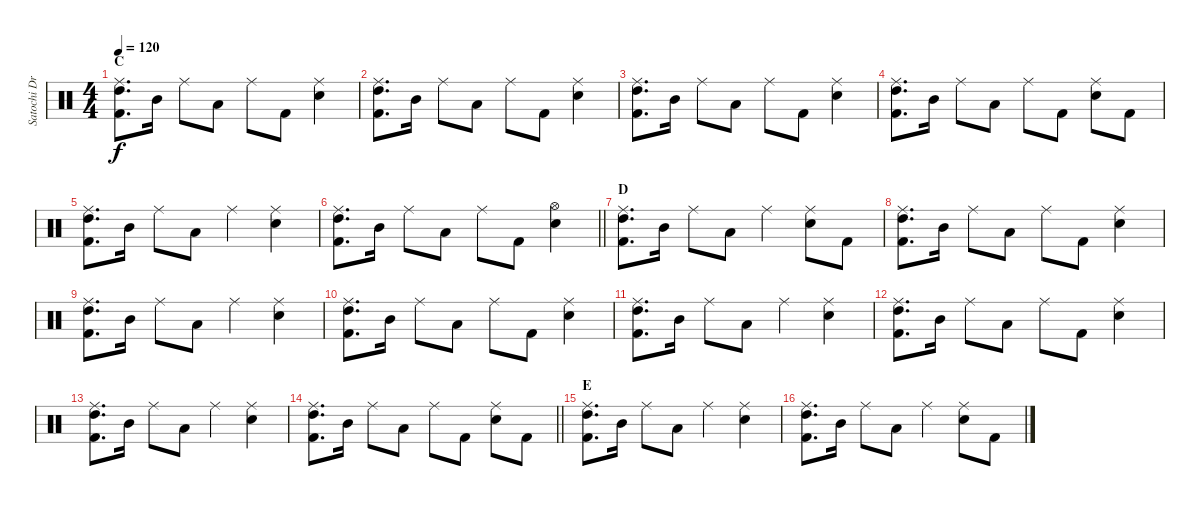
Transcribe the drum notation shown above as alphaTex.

\track ("Satochi Drums" "Satochi Dr") {instrument percussion}
\staff {score}
\articulation defaults
\ts (4 4)
\section ("" "C")
\tempo 120
\clef neutral
\ks c
("Ride (middle)" "High Tom (hit)" "Kick (hit) 2").8{d dy f} "Mid Tom (hit)".16 "Ride (middle)".8 "Low Floor Tom (hit)".8 "Ride (middle)".8 "Kick (hit) 2".8 ("Ride (middle)" "Snare (hit) 2").4 |
("Ride (middle)" "High Tom (hit)" "Kick (hit) 2").8{d} "Mid Tom (hit)".16 "Ride (middle)".8 "Low Floor Tom (hit)".8 "Ride (middle)".8 "Kick (hit) 2".8 ("Ride (middle)" "Snare (hit) 2").4 |
("Ride (middle)" "High Tom (hit)" "Kick (hit) 2").8{d} "Mid Tom (hit)".16 "Ride (middle)".8 "Low Floor Tom (hit)".8 "Ride (middle)".8 "Kick (hit) 2".8 ("Ride (middle)" "Snare (hit) 2").4 |
("Ride (middle)" "High Tom (hit)" "Kick (hit) 2").8{d} "Mid Tom (hit)".16 "Ride (middle)".8 "Low Floor Tom (hit)".8 "Ride (middle)".8 "Kick (hit) 2".8 ("Ride (middle)" "Snare (hit) 2").8 "Kick (hit) 2".8 |
("Ride (middle)" "High Tom (hit)" "Kick (hit) 2").8{d} "Mid Tom (hit)".16 "Ride (middle)".8 "Low Floor Tom (hit)".8 "Ride (middle)".4 ("Ride (middle)" "Snare (hit) 2").4 |
\barLineRight lightlight
("Ride (middle)" "High Tom (hit)" "Kick (hit) 2").8{d} "Mid Tom (hit)".16 "Ride (middle)".8 "Low Floor Tom (hit)".8 "Ride (middle)".8 "Kick (hit) 2".8 ("Hi-Hat (open)" "Snare (hit) 2").4 |
\section ("" "D")
("Ride (middle)" "High Tom (hit)" "Kick (hit) 2").8{d} "Mid Tom (hit)".16 "Ride (middle)".8 "Low Floor Tom (hit)".8 "Ride (middle)".4 ("Ride (middle)" "Snare (hit) 2").8 "Kick (hit) 2".8 |
("Ride (middle)" "High Tom (hit)" "Kick (hit) 2").8{d} "Mid Tom (hit)".16 "Ride (middle)".8 "Low Floor Tom (hit)".8 "Ride (middle)".8 "Kick (hit) 2".8 ("Ride (middle)" "Snare (hit) 2").4 |
("Ride (middle)" "High Tom (hit)" "Kick (hit) 2").8{d} "Mid Tom (hit)".16 "Ride (middle)".8 "Low Floor Tom (hit)".8 "Ride (middle)".4 ("Ride (middle)" "Snare (hit) 2").4 |
("Ride (middle)" "High Tom (hit)" "Kick (hit) 2").8{d} "Mid Tom (hit)".16 "Ride (middle)".8 "Low Floor Tom (hit)".8 "Ride (middle)".8 "Kick (hit) 2".8 ("Ride (middle)" "Snare (hit) 2").4 |
("Ride (middle)" "High Tom (hit)" "Kick (hit) 2").8{d} "Mid Tom (hit)".16 "Ride (middle)".8 "Low Floor Tom (hit)".8 "Ride (middle)".4 ("Ride (middle)" "Snare (hit) 2").4 |
("Ride (middle)" "High Tom (hit)" "Kick (hit) 2").8{d} "Mid Tom (hit)".16 "Ride (middle)".8 "Low Floor Tom (hit)".8 "Ride (middle)".8 "Kick (hit) 2".8 ("Ride (middle)" "Snare (hit) 2").4 |
("Ride (middle)" "High Tom (hit)" "Kick (hit) 2").8{d} "Mid Tom (hit)".16 "Ride (middle)".8 "Low Floor Tom (hit)".8 "Ride (middle)".4 ("Ride (middle)" "Snare (hit) 2").4 |
\barLineRight lightlight
("Ride (middle)" "High Tom (hit)" "Kick (hit) 2").8{d} "Mid Tom (hit)".16 "Ride (middle)".8 "Low Floor Tom (hit)".8 "Ride (middle)".8 "Kick (hit) 2".8 ("Ride (middle)" "Snare (hit) 2").8 "Kick (hit) 2".8 |
\section ("" "E")
("Ride (middle)" "High Tom (hit)" "Kick (hit) 2").8{d} "Mid Tom (hit)".16 "Ride (middle)".8 "Low Floor Tom (hit)".8 "Ride (middle)".4 ("Ride (middle)" "Snare (hit) 2").4 |
("Ride (middle)" "High Tom (hit)" "Kick (hit) 2").8{d} "Mid Tom (hit)".16 "Ride (middle)".8 "Low Floor Tom (hit)".8 "Ride (middle)".4 ("Ride (middle)" "Snare (hit) 2").8 "Kick (hit) 2".8
